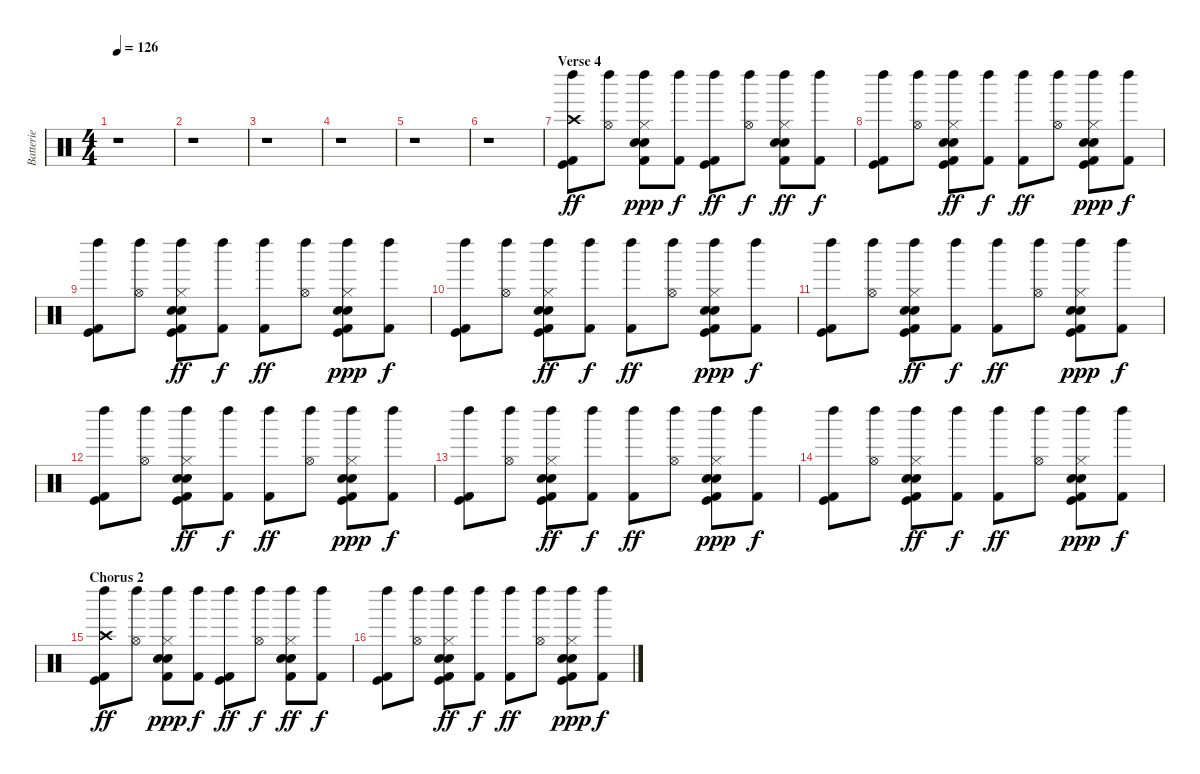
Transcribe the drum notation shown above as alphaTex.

\track ("Batterie" "Batterie") {instrument percussion}
\staff {score}
\articulation defaults
\ts (4 4)
\tempo 126
\clef neutral
\ks c
r.1{dy ff} |
r.1 |
r.1 |
r.1 |
r.1 |
r.1 |
\section ("" "Verse 4")
("Left Maraca (hit)" "Crash high (hit)" "Kick (hit)" "Kick (hit) 2").8 ("Left Maraca (hit)" "Hi-Hat (open)").8 ("Left Maraca (hit)" "Hi-Hat (closed)" "Electric Snare (hit)" "Hand Clap (hit)" "Kick (hit) 2").8{dy ppp} ("Left Maraca (hit)" "Kick (hit) 2").8{dy f} ("Left Maraca (hit)" "Kick (hit)" "Kick (hit) 2").8{dy ff} ("Left Maraca (hit)" "Hi-Hat (open)").8{dy f} ("Left Maraca (hit)" "Hi-Hat (closed)" "Electric Snare (hit)" "Hand Clap (hit)" "Kick (hit) 2").8{dy ff} ("Left Maraca (hit)" "Kick (hit) 2").8{dy f} |
("Left Maraca (hit)" "Kick (hit)" "Kick (hit) 2").8 ("Left Maraca (hit)" "Hi-Hat (open)").8 ("Left Maraca (hit)" "Hi-Hat (closed)" "Electric Snare (hit)" "Hand Clap (hit)" "Kick (hit)" "Kick (hit) 2").8{dy ff} ("Left Maraca (hit)" "Kick (hit) 2").8{dy f} ("Left Maraca (hit)" "Kick (hit) 2").8{dy ff} ("Left Maraca (hit)" "Hi-Hat (open)").8 ("Left Maraca (hit)" "Hi-Hat (closed)" "Electric Snare (hit)" "Hand Clap (hit)" "Kick (hit)" "Kick (hit) 2").8{dy ppp} ("Left Maraca (hit)" "Kick (hit) 2").8{dy f} |
("Left Maraca (hit)" "Kick (hit)" "Kick (hit) 2").8 ("Left Maraca (hit)" "Hi-Hat (open)").8 ("Left Maraca (hit)" "Hi-Hat (closed)" "Electric Snare (hit)" "Hand Clap (hit)" "Kick (hit)" "Kick (hit) 2").8{dy ff} ("Left Maraca (hit)" "Kick (hit) 2").8{dy f} ("Left Maraca (hit)" "Kick (hit) 2").8{dy ff} ("Left Maraca (hit)" "Hi-Hat (open)").8 ("Left Maraca (hit)" "Hi-Hat (closed)" "Electric Snare (hit)" "Hand Clap (hit)" "Kick (hit)" "Kick (hit) 2").8{dy ppp} ("Left Maraca (hit)" "Kick (hit) 2").8{dy f} |
("Left Maraca (hit)" "Kick (hit)" "Kick (hit) 2").8 ("Left Maraca (hit)" "Hi-Hat (open)").8 ("Left Maraca (hit)" "Hi-Hat (closed)" "Electric Snare (hit)" "Hand Clap (hit)" "Kick (hit)" "Kick (hit) 2").8{dy ff} ("Left Maraca (hit)" "Kick (hit) 2").8{dy f} ("Left Maraca (hit)" "Kick (hit) 2").8{dy ff} ("Left Maraca (hit)" "Hi-Hat (open)").8 ("Left Maraca (hit)" "Hi-Hat (closed)" "Electric Snare (hit)" "Hand Clap (hit)" "Kick (hit)" "Kick (hit) 2").8{dy ppp} ("Left Maraca (hit)" "Kick (hit) 2").8{dy f} |
("Left Maraca (hit)" "Kick (hit)" "Kick (hit) 2").8 ("Left Maraca (hit)" "Hi-Hat (open)").8 ("Left Maraca (hit)" "Hi-Hat (closed)" "Electric Snare (hit)" "Hand Clap (hit)" "Kick (hit)" "Kick (hit) 2").8{dy ff} ("Left Maraca (hit)" "Kick (hit) 2").8{dy f} ("Left Maraca (hit)" "Kick (hit) 2").8{dy ff} ("Left Maraca (hit)" "Hi-Hat (open)").8 ("Left Maraca (hit)" "Hi-Hat (closed)" "Electric Snare (hit)" "Hand Clap (hit)" "Kick (hit)" "Kick (hit) 2").8{dy ppp} ("Left Maraca (hit)" "Kick (hit) 2").8{dy f} |
("Left Maraca (hit)" "Kick (hit)" "Kick (hit) 2").8 ("Left Maraca (hit)" "Hi-Hat (open)").8 ("Left Maraca (hit)" "Hi-Hat (closed)" "Electric Snare (hit)" "Hand Clap (hit)" "Kick (hit)" "Kick (hit) 2").8{dy ff} ("Left Maraca (hit)" "Kick (hit) 2").8{dy f} ("Left Maraca (hit)" "Kick (hit) 2").8{dy ff} ("Left Maraca (hit)" "Hi-Hat (open)").8 ("Left Maraca (hit)" "Hi-Hat (closed)" "Electric Snare (hit)" "Hand Clap (hit)" "Kick (hit)" "Kick (hit) 2").8{dy ppp} ("Left Maraca (hit)" "Kick (hit) 2").8{dy f} |
("Left Maraca (hit)" "Kick (hit)" "Kick (hit) 2").8 ("Left Maraca (hit)" "Hi-Hat (open)").8 ("Left Maraca (hit)" "Hi-Hat (closed)" "Electric Snare (hit)" "Hand Clap (hit)" "Kick (hit)" "Kick (hit) 2").8{dy ff} ("Left Maraca (hit)" "Kick (hit) 2").8{dy f} ("Left Maraca (hit)" "Kick (hit) 2").8{dy ff} ("Left Maraca (hit)" "Hi-Hat (open)").8 ("Left Maraca (hit)" "Hi-Hat (closed)" "Electric Snare (hit)" "Hand Clap (hit)" "Kick (hit)" "Kick (hit) 2").8{dy ppp} ("Left Maraca (hit)" "Kick (hit) 2").8{dy f} |
("Left Maraca (hit)" "Kick (hit)" "Kick (hit) 2").8 ("Left Maraca (hit)" "Hi-Hat (open)").8 ("Left Maraca (hit)" "Hi-Hat (closed)" "Electric Snare (hit)" "Hand Clap (hit)" "Kick (hit)" "Kick (hit) 2").8{dy ff} ("Left Maraca (hit)" "Kick (hit) 2").8{dy f} ("Left Maraca (hit)" "Kick (hit) 2").8{dy ff} ("Left Maraca (hit)" "Hi-Hat (open)").8 ("Left Maraca (hit)" "Hi-Hat (closed)" "Electric Snare (hit)" "Hand Clap (hit)" "Kick (hit)" "Kick (hit) 2").8{dy ppp} ("Left Maraca (hit)" "Kick (hit) 2").8{dy f} |
\section ("" "Chorus 2")
("Left Maraca (hit)" "Crash high (hit)" "Kick (hit)" "Kick (hit) 2").8{dy ff} ("Left Maraca (hit)" "Hi-Hat (open)").8 ("Left Maraca (hit)" "Hi-Hat (closed)" "Electric Snare (hit)" "Hand Clap (hit)" "Kick (hit) 2").8{dy ppp} ("Left Maraca (hit)" "Kick (hit) 2").8{dy f} ("Left Maraca (hit)" "Kick (hit)" "Kick (hit) 2").8{dy ff} ("Left Maraca (hit)" "Hi-Hat (open)").8{dy f} ("Left Maraca (hit)" "Hi-Hat (closed)" "Electric Snare (hit)" "Hand Clap (hit)" "Kick (hit) 2").8{dy ff} ("Left Maraca (hit)" "Kick (hit) 2").8{dy f} |
("Left Maraca (hit)" "Kick (hit)" "Kick (hit) 2").8 ("Left Maraca (hit)" "Hi-Hat (open)").8 ("Left Maraca (hit)" "Hi-Hat (closed)" "Electric Snare (hit)" "Hand Clap (hit)" "Kick (hit)" "Kick (hit) 2").8{dy ff} ("Left Maraca (hit)" "Kick (hit) 2").8{dy f} ("Left Maraca (hit)" "Kick (hit) 2").8{dy ff} ("Left Maraca (hit)" "Hi-Hat (open)").8 ("Left Maraca (hit)" "Hi-Hat (closed)" "Electric Snare (hit)" "Hand Clap (hit)" "Kick (hit)" "Kick (hit) 2").8{dy ppp} ("Left Maraca (hit)" "Kick (hit) 2").8{dy f}
